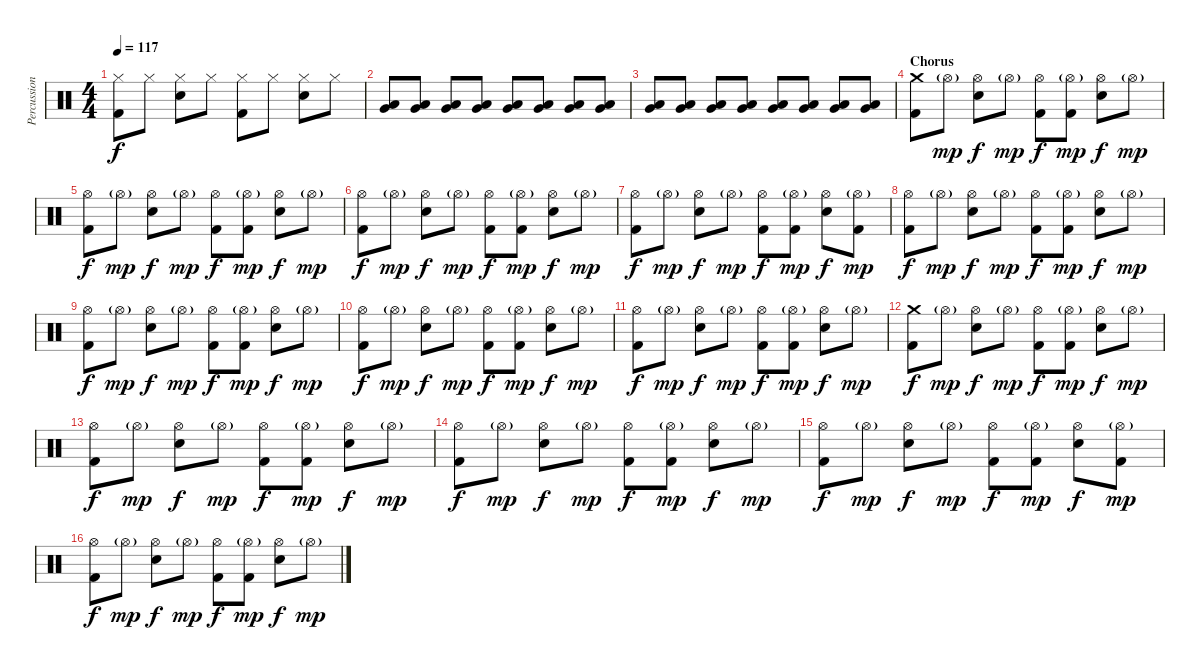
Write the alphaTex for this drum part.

\track ("Percussion" "Percussion") {instrument percussion}
\staff {score}
\articulation defaults
\ts (4 4)
\tempo 117
\clef neutral
\ks c
("Hi-Hat (closed)" "Kick (hit) 2").8{dy f} "Hi-Hat (closed)".8 ("Hi-Hat (closed)" "Snare (hit) 2").8 "Hi-Hat (closed)".8 ("Hi-Hat (closed)" "Kick (hit) 2").8 "Hi-Hat (closed)".8 ("Hi-Hat (closed)" "Snare (hit) 2").8 "Hi-Hat (closed)".8 |
("Low Tom (hit)" "Very Low Tom (hit)").8 ("Low Tom (hit)" "Very Low Tom (hit)").8 ("Low Tom (hit)" "Very Low Tom (hit)").8 ("Low Tom (hit)" "Very Low Tom (hit)").8 ("Low Tom (hit)" "Very Low Tom (hit)").8 ("Low Tom (hit)" "Very Low Tom (hit)").8 ("Low Tom (hit)" "Very Low Tom (hit)").8 ("Low Tom (hit)" "Very Low Tom (hit)").8 |
("Very Low Tom (hit)" "Low Floor Tom (hit)").8 ("Very Low Tom (hit)" "Low Floor Tom (hit)").8 ("Very Low Tom (hit)" "Low Floor Tom (hit)").8 ("Very Low Tom (hit)" "Low Floor Tom (hit)").8 ("Very Low Tom (hit)" "Low Floor Tom (hit)").8 ("Very Low Tom (hit)" "Low Floor Tom (hit)").8 ("Very Low Tom (hit)" "Low Floor Tom (hit)").8 ("Very Low Tom (hit)" "Low Floor Tom (hit)").8 |
\section ("" "Chorus")
("Crash medium (hit)" "Kick (hit) 2").8 "Hi-Hat (open)"{g}.8{dy mp} ("Hi-Hat (open)" "Electric Snare (hit)").8{dy f} "Hi-Hat (open)"{g}.8{dy mp} ("Hi-Hat (open)" "Kick (hit) 2").8{dy f} ("Hi-Hat (open)"{g} "Kick (hit) 2").8{dy mp} ("Hi-Hat (open)" "Electric Snare (hit)").8{dy f} "Hi-Hat (open)"{g}.8{dy mp} |
("Hi-Hat (open)" "Kick (hit) 2").8{dy f} "Hi-Hat (open)"{g}.8{dy mp} ("Hi-Hat (open)" "Electric Snare (hit)").8{dy f} "Hi-Hat (open)"{g}.8{dy mp} ("Hi-Hat (open)" "Kick (hit) 2").8{dy f} ("Hi-Hat (open)"{g} "Kick (hit) 2").8{dy mp} ("Hi-Hat (open)" "Electric Snare (hit)").8{dy f} "Hi-Hat (open)"{g}.8{dy mp} |
("Hi-Hat (open)" "Kick (hit) 2").8{dy f} "Hi-Hat (open)"{g}.8{dy mp} ("Hi-Hat (open)" "Electric Snare (hit)").8{dy f} "Hi-Hat (open)"{g}.8{dy mp} ("Hi-Hat (open)" "Kick (hit) 2").8{dy f} ("Hi-Hat (open)"{g} "Kick (hit) 2").8{dy mp} ("Hi-Hat (open)" "Electric Snare (hit)").8{dy f} "Hi-Hat (open)"{g}.8{dy mp} |
("Hi-Hat (open)" "Kick (hit) 2").8{dy f} "Hi-Hat (open)"{g}.8{dy mp} ("Hi-Hat (open)" "Electric Snare (hit)").8{dy f} "Hi-Hat (open)"{g}.8{dy mp} ("Hi-Hat (open)" "Kick (hit) 2").8{dy f} ("Hi-Hat (open)"{g} "Kick (hit) 2").8{dy mp} ("Hi-Hat (open)" "Electric Snare (hit)").8{dy f} ("Hi-Hat (open)"{g} "Kick (hit) 2").8{dy mp} |
("Hi-Hat (open)" "Kick (hit) 2").8{dy f} "Hi-Hat (open)"{g}.8{dy mp} ("Hi-Hat (open)" "Electric Snare (hit)").8{dy f} "Hi-Hat (open)"{g}.8{dy mp} ("Hi-Hat (open)" "Kick (hit) 2").8{dy f} ("Hi-Hat (open)"{g} "Kick (hit) 2").8{dy mp} ("Hi-Hat (open)" "Electric Snare (hit)").8{dy f} "Hi-Hat (open)"{g}.8{dy mp} |
("Hi-Hat (open)" "Kick (hit) 2").8{dy f} "Hi-Hat (open)"{g}.8{dy mp} ("Hi-Hat (open)" "Electric Snare (hit)").8{dy f} "Hi-Hat (open)"{g}.8{dy mp} ("Hi-Hat (open)" "Kick (hit) 2").8{dy f} ("Hi-Hat (open)"{g} "Kick (hit) 2").8{dy mp} ("Hi-Hat (open)" "Electric Snare (hit)").8{dy f} "Hi-Hat (open)"{g}.8{dy mp} |
("Hi-Hat (open)" "Kick (hit) 2").8{dy f} "Hi-Hat (open)"{g}.8{dy mp} ("Hi-Hat (open)" "Electric Snare (hit)").8{dy f} "Hi-Hat (open)"{g}.8{dy mp} ("Hi-Hat (open)" "Kick (hit) 2").8{dy f} ("Hi-Hat (open)"{g} "Kick (hit) 2").8{dy mp} ("Hi-Hat (open)" "Electric Snare (hit)").8{dy f} "Hi-Hat (open)"{g}.8{dy mp} |
("Hi-Hat (open)" "Kick (hit) 2").8{dy f} "Hi-Hat (open)"{g}.8{dy mp} ("Hi-Hat (open)" "Electric Snare (hit)").8{dy f} "Hi-Hat (open)"{g}.8{dy mp} ("Hi-Hat (open)" "Kick (hit) 2").8{dy f} ("Hi-Hat (open)"{g} "Kick (hit) 2").8{dy mp} ("Hi-Hat (open)" "Electric Snare (hit)").8{dy f} "Hi-Hat (open)"{g}.8{dy mp} |
("Crash medium (hit)" "Kick (hit) 2").8{dy f} "Hi-Hat (open)"{g}.8{dy mp} ("Hi-Hat (open)" "Electric Snare (hit)").8{dy f} "Hi-Hat (open)"{g}.8{dy mp} ("Hi-Hat (open)" "Kick (hit) 2").8{dy f} ("Hi-Hat (open)"{g} "Kick (hit) 2").8{dy mp} ("Hi-Hat (open)" "Electric Snare (hit)").8{dy f} "Hi-Hat (open)"{g}.8{dy mp} |
("Hi-Hat (open)" "Kick (hit) 2").8{dy f} "Hi-Hat (open)"{g}.8{dy mp} ("Hi-Hat (open)" "Electric Snare (hit)").8{dy f} "Hi-Hat (open)"{g}.8{dy mp} ("Hi-Hat (open)" "Kick (hit) 2").8{dy f} ("Hi-Hat (open)"{g} "Kick (hit) 2").8{dy mp} ("Hi-Hat (open)" "Electric Snare (hit)").8{dy f} "Hi-Hat (open)"{g}.8{dy mp} |
("Hi-Hat (open)" "Kick (hit) 2").8{dy f} "Hi-Hat (open)"{g}.8{dy mp} ("Hi-Hat (open)" "Electric Snare (hit)").8{dy f} "Hi-Hat (open)"{g}.8{dy mp} ("Hi-Hat (open)" "Kick (hit) 2").8{dy f} ("Hi-Hat (open)"{g} "Kick (hit) 2").8{dy mp} ("Hi-Hat (open)" "Electric Snare (hit)").8{dy f} "Hi-Hat (open)"{g}.8{dy mp} |
("Hi-Hat (open)" "Kick (hit) 2").8{dy f} "Hi-Hat (open)"{g}.8{dy mp} ("Hi-Hat (open)" "Electric Snare (hit)").8{dy f} "Hi-Hat (open)"{g}.8{dy mp} ("Hi-Hat (open)" "Kick (hit) 2").8{dy f} ("Hi-Hat (open)"{g} "Kick (hit) 2").8{dy mp} ("Hi-Hat (open)" "Electric Snare (hit)").8{dy f} ("Hi-Hat (open)"{g} "Kick (hit) 2").8{dy mp} |
("Hi-Hat (open)" "Kick (hit) 2").8{dy f} "Hi-Hat (open)"{g}.8{dy mp} ("Hi-Hat (open)" "Electric Snare (hit)").8{dy f} "Hi-Hat (open)"{g}.8{dy mp} ("Hi-Hat (open)" "Kick (hit) 2").8{dy f} ("Hi-Hat (open)"{g} "Kick (hit) 2").8{dy mp} ("Hi-Hat (open)" "Electric Snare (hit)").8{dy f} "Hi-Hat (open)"{g}.8{dy mp}
